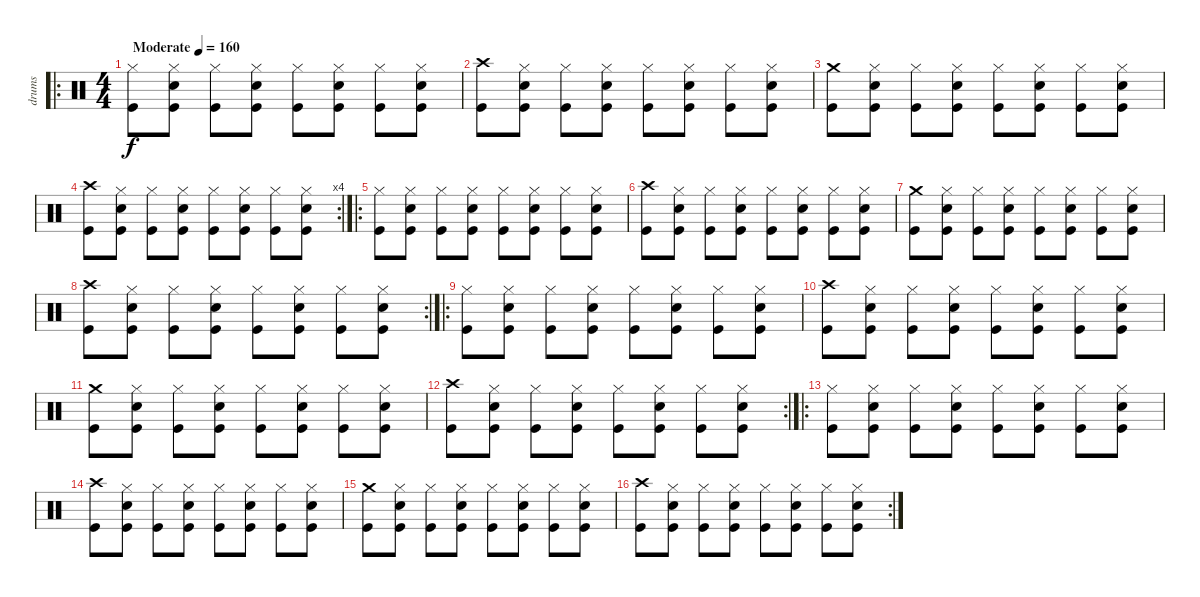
\track ("drums" "drums") {instrument percussion}
\staff {score}
\articulation defaults
\ro
\ts (4 4)
\tempo (160 "Moderate")
\clef neutral
\ks c
("Hi-Hat (closed)" "Kick (hit)").8{dy f} ("Hi-Hat (closed)" "Snare (hit) 2" "Kick (hit)").8 ("Hi-Hat (closed)" "Kick (hit)").8 ("Hi-Hat (closed)" "Snare (hit) 2" "Kick (hit)").8 ("Hi-Hat (closed)" "Kick (hit)").8 ("Hi-Hat (closed)" "Snare (hit) 2" "Kick (hit)").8 ("Hi-Hat (closed)" "Kick (hit)").8 ("Hi-Hat (closed)" "Snare (hit) 2" "Kick (hit)").8 |
("Crash high (hit)" "Kick (hit)").8 ("Hi-Hat (closed)" "Snare (hit) 2" "Kick (hit)").8 ("Hi-Hat (closed)" "Kick (hit)").8 ("Hi-Hat (closed)" "Snare (hit) 2" "Kick (hit)").8 ("Hi-Hat (closed)" "Kick (hit)").8 ("Hi-Hat (closed)" "Snare (hit) 2" "Kick (hit)").8 ("Hi-Hat (closed)" "Kick (hit)").8 ("Hi-Hat (closed)" "Snare (hit) 2" "Kick (hit)").8 |
("Crash medium (hit)" "Kick (hit)").8 ("Hi-Hat (closed)" "Snare (hit) 2" "Kick (hit)").8 ("Hi-Hat (closed)" "Kick (hit)").8 ("Hi-Hat (closed)" "Snare (hit) 2" "Kick (hit)").8 ("Hi-Hat (closed)" "Kick (hit)").8 ("Hi-Hat (closed)" "Snare (hit) 2" "Kick (hit)").8 ("Hi-Hat (closed)" "Kick (hit)").8 ("Hi-Hat (closed)" "Snare (hit) 2" "Kick (hit)").8 |
\rc 4
("Crash high (hit)" "Kick (hit)").8 ("Hi-Hat (closed)" "Snare (hit) 2" "Kick (hit)").8 ("Hi-Hat (closed)" "Kick (hit)").8 ("Hi-Hat (closed)" "Snare (hit) 2" "Kick (hit)").8 ("Hi-Hat (closed)" "Kick (hit)").8 ("Hi-Hat (closed)" "Snare (hit) 2" "Kick (hit)").8 ("Hi-Hat (closed)" "Kick (hit)").8 ("Hi-Hat (closed)" "Snare (hit) 2" "Kick (hit)").8 |
\ro
("Hi-Hat (closed)" "Kick (hit)").8 ("Hi-Hat (closed)" "Snare (hit) 2" "Kick (hit)").8 ("Hi-Hat (closed)" "Kick (hit)").8 ("Hi-Hat (closed)" "Snare (hit) 2" "Kick (hit)").8 ("Hi-Hat (closed)" "Kick (hit)").8 ("Hi-Hat (closed)" "Snare (hit) 2" "Kick (hit)").8 ("Hi-Hat (closed)" "Kick (hit)").8 ("Hi-Hat (closed)" "Snare (hit) 2" "Kick (hit)").8 |
("Crash high (hit)" "Kick (hit)").8 ("Hi-Hat (closed)" "Snare (hit) 2" "Kick (hit)").8 ("Hi-Hat (closed)" "Kick (hit)").8 ("Hi-Hat (closed)" "Snare (hit) 2" "Kick (hit)").8 ("Hi-Hat (closed)" "Kick (hit)").8 ("Hi-Hat (closed)" "Snare (hit) 2" "Kick (hit)").8 ("Hi-Hat (closed)" "Kick (hit)").8 ("Hi-Hat (closed)" "Snare (hit) 2" "Kick (hit)").8 |
("Crash medium (hit)" "Kick (hit)").8 ("Hi-Hat (closed)" "Snare (hit) 2" "Kick (hit)").8 ("Hi-Hat (closed)" "Kick (hit)").8 ("Hi-Hat (closed)" "Snare (hit) 2" "Kick (hit)").8 ("Hi-Hat (closed)" "Kick (hit)").8 ("Hi-Hat (closed)" "Snare (hit) 2" "Kick (hit)").8 ("Hi-Hat (closed)" "Kick (hit)").8 ("Hi-Hat (closed)" "Snare (hit) 2" "Kick (hit)").8 |
\rc 2
("Crash high (hit)" "Kick (hit)").8 ("Hi-Hat (closed)" "Snare (hit) 2" "Kick (hit)").8 ("Hi-Hat (closed)" "Kick (hit)").8 ("Hi-Hat (closed)" "Snare (hit) 2" "Kick (hit)").8 ("Hi-Hat (closed)" "Kick (hit)").8 ("Hi-Hat (closed)" "Snare (hit) 2" "Kick (hit)").8 ("Hi-Hat (closed)" "Kick (hit)").8 ("Hi-Hat (closed)" "Snare (hit) 2" "Kick (hit)").8 |
\ro
("Hi-Hat (closed)" "Kick (hit)").8 ("Hi-Hat (closed)" "Snare (hit) 2" "Kick (hit)").8 ("Hi-Hat (closed)" "Kick (hit)").8 ("Hi-Hat (closed)" "Snare (hit) 2" "Kick (hit)").8 ("Hi-Hat (closed)" "Kick (hit)").8 ("Hi-Hat (closed)" "Snare (hit) 2" "Kick (hit)").8 ("Hi-Hat (closed)" "Kick (hit)").8 ("Hi-Hat (closed)" "Snare (hit) 2" "Kick (hit)").8 |
("Crash high (hit)" "Kick (hit)").8 ("Hi-Hat (closed)" "Snare (hit) 2" "Kick (hit)").8 ("Hi-Hat (closed)" "Kick (hit)").8 ("Hi-Hat (closed)" "Snare (hit) 2" "Kick (hit)").8 ("Hi-Hat (closed)" "Kick (hit)").8 ("Hi-Hat (closed)" "Snare (hit) 2" "Kick (hit)").8 ("Hi-Hat (closed)" "Kick (hit)").8 ("Hi-Hat (closed)" "Snare (hit) 2" "Kick (hit)").8 |
("Crash medium (hit)" "Kick (hit)").8 ("Hi-Hat (closed)" "Snare (hit) 2" "Kick (hit)").8 ("Hi-Hat (closed)" "Kick (hit)").8 ("Hi-Hat (closed)" "Snare (hit) 2" "Kick (hit)").8 ("Hi-Hat (closed)" "Kick (hit)").8 ("Hi-Hat (closed)" "Snare (hit) 2" "Kick (hit)").8 ("Hi-Hat (closed)" "Kick (hit)").8 ("Hi-Hat (closed)" "Snare (hit) 2" "Kick (hit)").8 |
\rc 2
("Crash high (hit)" "Kick (hit)").8 ("Hi-Hat (closed)" "Snare (hit) 2" "Kick (hit)").8 ("Hi-Hat (closed)" "Kick (hit)").8 ("Hi-Hat (closed)" "Snare (hit) 2" "Kick (hit)").8 ("Hi-Hat (closed)" "Kick (hit)").8 ("Hi-Hat (closed)" "Snare (hit) 2" "Kick (hit)").8 ("Hi-Hat (closed)" "Kick (hit)").8 ("Hi-Hat (closed)" "Snare (hit) 2" "Kick (hit)").8 |
\ro
("Hi-Hat (closed)" "Kick (hit)").8 ("Hi-Hat (closed)" "Snare (hit) 2" "Kick (hit)").8 ("Hi-Hat (closed)" "Kick (hit)").8 ("Hi-Hat (closed)" "Snare (hit) 2" "Kick (hit)").8 ("Hi-Hat (closed)" "Kick (hit)").8 ("Hi-Hat (closed)" "Snare (hit) 2" "Kick (hit)").8 ("Hi-Hat (closed)" "Kick (hit)").8 ("Hi-Hat (closed)" "Snare (hit) 2" "Kick (hit)").8 |
("Crash high (hit)" "Kick (hit)").8 ("Hi-Hat (closed)" "Snare (hit) 2" "Kick (hit)").8 ("Hi-Hat (closed)" "Kick (hit)").8 ("Hi-Hat (closed)" "Snare (hit) 2" "Kick (hit)").8 ("Hi-Hat (closed)" "Kick (hit)").8 ("Hi-Hat (closed)" "Snare (hit) 2" "Kick (hit)").8 ("Hi-Hat (closed)" "Kick (hit)").8 ("Hi-Hat (closed)" "Snare (hit) 2" "Kick (hit)").8 |
("Crash medium (hit)" "Kick (hit)").8 ("Hi-Hat (closed)" "Snare (hit) 2" "Kick (hit)").8 ("Hi-Hat (closed)" "Kick (hit)").8 ("Hi-Hat (closed)" "Snare (hit) 2" "Kick (hit)").8 ("Hi-Hat (closed)" "Kick (hit)").8 ("Hi-Hat (closed)" "Snare (hit) 2" "Kick (hit)").8 ("Hi-Hat (closed)" "Kick (hit)").8 ("Hi-Hat (closed)" "Snare (hit) 2" "Kick (hit)").8 |
\rc 2
("Crash high (hit)" "Kick (hit)").8 ("Hi-Hat (closed)" "Snare (hit) 2" "Kick (hit)").8 ("Hi-Hat (closed)" "Kick (hit)").8 ("Hi-Hat (closed)" "Snare (hit) 2" "Kick (hit)").8 ("Hi-Hat (closed)" "Kick (hit)").8 ("Hi-Hat (closed)" "Snare (hit) 2" "Kick (hit)").8 ("Hi-Hat (closed)" "Kick (hit)").8 ("Hi-Hat (closed)" "Snare (hit) 2" "Kick (hit)").8
